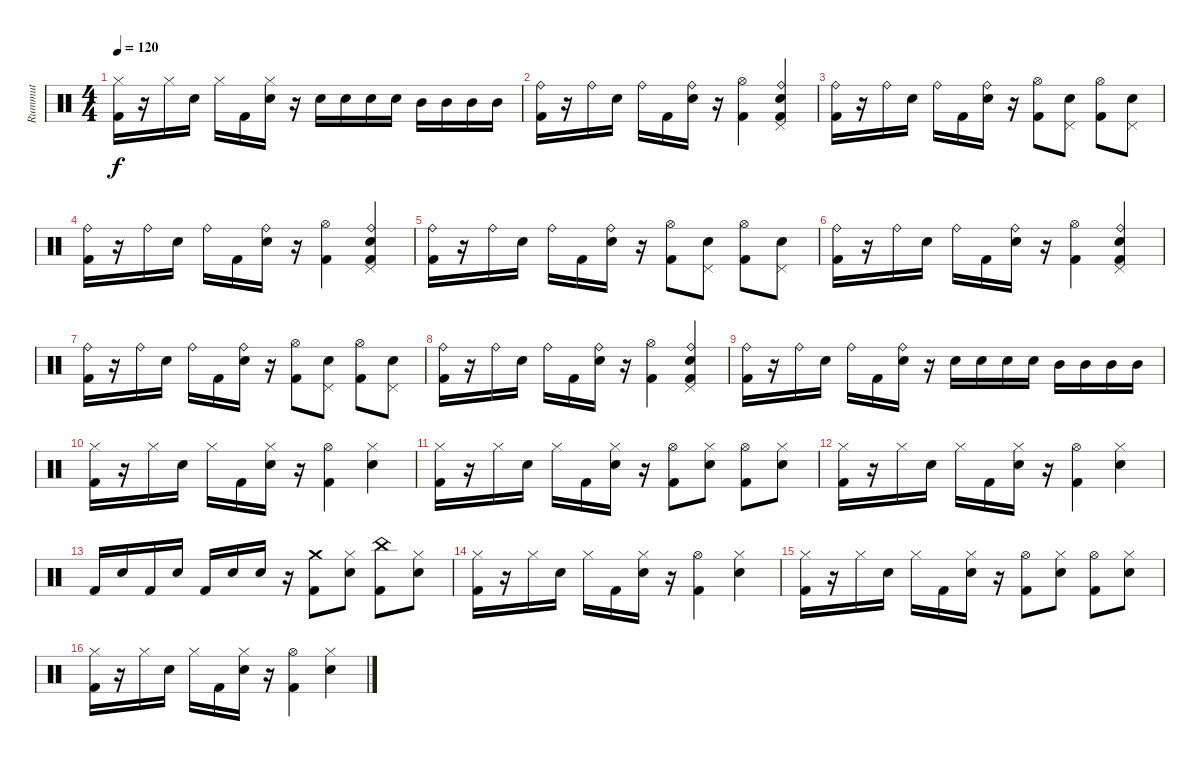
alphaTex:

\track ("Rummut" "Rummut") {instrument percussion}
\staff {score}
\articulation defaults
\ts (4 4)
\tempo 120
\clef neutral
\ks c
("Hi-Hat (closed)" "Kick (hit) 2").16{dy f} r.16 "Hi-Hat (closed)".16 "Snare (hit) 2".16 "Hi-Hat (closed)".16 "Kick (hit) 2".16 ("Hi-Hat (closed)" "Snare (hit) 2").16 r.16 "Snare (hit) 2".16 "Snare (hit) 2".16 "Snare (hit) 2".16 "Snare (hit) 2".16 "Mid Tom (hit)".16 "Mid Tom (hit)".16 "Mid Tom (hit)".16 "Mid Tom (hit)".16 |
("Ride (bell)" "Kick (hit) 2").16 r.16 "Ride (bell)".16 "Snare (hit) 2".16 "Ride (bell)".16 "Kick (hit) 2".16 ("Ride (bell)" "Snare (hit) 2").16 r.16 ("Hi-Hat (open)" "Kick (hit) 2").4 ("Pedal Hi-Hat (hit)" "Snare (hit) 2" "Ride (bell)" "Kick (hit) 2").4 |
("Ride (bell)" "Kick (hit) 2").16 r.16 "Ride (bell)".16 "Snare (hit) 2".16 "Ride (bell)".16 "Kick (hit) 2".16 ("Ride (bell)" "Snare (hit) 2").16 r.16 ("Hi-Hat (open)" "Kick (hit) 2").8 ("Pedal Hi-Hat (hit)" "Snare (hit) 2").8 ("Hi-Hat (open)" "Kick (hit) 2").8 ("Pedal Hi-Hat (hit)" "Snare (hit) 2").8 |
("Ride (bell)" "Kick (hit) 2").16 r.16 "Ride (bell)".16 "Snare (hit) 2".16 "Ride (bell)".16 "Kick (hit) 2".16 ("Ride (bell)" "Snare (hit) 2").16 r.16 ("Hi-Hat (open)" "Kick (hit) 2").4 ("Pedal Hi-Hat (hit)" "Snare (hit) 2" "Ride (bell)" "Kick (hit) 2").4 |
("Ride (bell)" "Kick (hit) 2").16 r.16 "Ride (bell)".16 "Snare (hit) 2".16 "Ride (bell)".16 "Kick (hit) 2".16 ("Ride (bell)" "Snare (hit) 2").16 r.16 ("Hi-Hat (open)" "Kick (hit) 2").8 ("Pedal Hi-Hat (hit)" "Snare (hit) 2").8 ("Hi-Hat (open)" "Kick (hit) 2").8 ("Pedal Hi-Hat (hit)" "Snare (hit) 2").8 |
("Ride (bell)" "Kick (hit) 2").16 r.16 "Ride (bell)".16 "Snare (hit) 2".16 "Ride (bell)".16 "Kick (hit) 2".16 ("Ride (bell)" "Snare (hit) 2").16 r.16 ("Hi-Hat (open)" "Kick (hit) 2").4 ("Pedal Hi-Hat (hit)" "Snare (hit) 2" "Ride (bell)" "Kick (hit) 2").4 |
("Ride (bell)" "Kick (hit) 2").16 r.16 "Ride (bell)".16 "Snare (hit) 2".16 "Ride (bell)".16 "Kick (hit) 2".16 ("Ride (bell)" "Snare (hit) 2").16 r.16 ("Hi-Hat (open)" "Kick (hit) 2").8 ("Pedal Hi-Hat (hit)" "Snare (hit) 2").8 ("Hi-Hat (open)" "Kick (hit) 2").8 ("Pedal Hi-Hat (hit)" "Snare (hit) 2").8 |
("Ride (bell)" "Kick (hit) 2").16 r.16 "Ride (bell)".16 "Snare (hit) 2".16 "Ride (bell)".16 "Kick (hit) 2".16 ("Ride (bell)" "Snare (hit) 2").16 r.16 ("Hi-Hat (open)" "Kick (hit) 2").4 ("Pedal Hi-Hat (hit)" "Snare (hit) 2" "Ride (bell)" "Kick (hit) 2").4 |
("Ride (bell)" "Kick (hit) 2").16 r.16 "Ride (bell)".16 "Snare (hit) 2".16 "Ride (bell)".16 "Kick (hit) 2".16 ("Ride (bell)" "Snare (hit) 2").16 r.16 "Snare (hit) 2".16 "Snare (hit) 2".16 "Snare (hit) 2".16 "Snare (hit) 2".16 "Mid Tom (hit)".16 "Mid Tom (hit)".16 "Mid Tom (hit)".16 "Mid Tom (hit)".16 |
("Hi-Hat (closed)" "Kick (hit) 2").16 r.16 "Hi-Hat (closed)".16 "Snare (hit) 2".16 "Hi-Hat (closed)".16 "Kick (hit) 2".16 ("Hi-Hat (closed)" "Snare (hit) 2").16 r.16 ("Hi-Hat (open)" "Kick (hit) 2").4 ("Hi-Hat (closed)" "Snare (hit) 2").4 |
("Hi-Hat (closed)" "Kick (hit) 2").16 r.16 "Hi-Hat (closed)".16 "Snare (hit) 2".16 "Hi-Hat (closed)".16 "Kick (hit) 2".16 ("Hi-Hat (closed)" "Snare (hit) 2").16 r.16 ("Hi-Hat (open)" "Kick (hit) 2").8 ("Hi-Hat (closed)" "Snare (hit) 2").8 ("Hi-Hat (open)" "Kick (hit) 2").8 ("Hi-Hat (closed)" "Snare (hit) 2").8 |
("Hi-Hat (closed)" "Kick (hit) 2").16 r.16 "Hi-Hat (closed)".16 "Snare (hit) 2".16 "Hi-Hat (closed)".16 "Kick (hit) 2".16 ("Hi-Hat (closed)" "Snare (hit) 2").16 r.16 ("Hi-Hat (open)" "Kick (hit) 2").4 ("Hi-Hat (closed)" "Snare (hit) 2").4 |
"Kick (hit) 2".16 "Snare (hit) 2".16 "Kick (hit) 2".16 "Snare (hit) 2".16 "Kick (hit) 2".16 "Snare (hit) 2".16 "Snare (hit) 2".16 r.16 ("Crash medium (hit)" "Kick (hit) 2").8 ("Hi-Hat (closed)" "Snare (hit) 2").8 ("China (hit)" "Kick (hit) 2").8 ("Hi-Hat (closed)" "Snare (hit) 2").8 |
("Hi-Hat (closed)" "Kick (hit) 2").16 r.16 "Hi-Hat (closed)".16 "Snare (hit) 2".16 "Hi-Hat (closed)".16 "Kick (hit) 2".16 ("Hi-Hat (closed)" "Snare (hit) 2").16 r.16 ("Hi-Hat (open)" "Kick (hit) 2").4 ("Hi-Hat (closed)" "Snare (hit) 2").4 |
("Hi-Hat (closed)" "Kick (hit) 2").16 r.16 "Hi-Hat (closed)".16 "Snare (hit) 2".16 "Hi-Hat (closed)".16 "Kick (hit) 2".16 ("Hi-Hat (closed)" "Snare (hit) 2").16 r.16 ("Hi-Hat (open)" "Kick (hit) 2").8 ("Hi-Hat (closed)" "Snare (hit) 2").8 ("Hi-Hat (open)" "Kick (hit) 2").8 ("Hi-Hat (closed)" "Snare (hit) 2").8 |
("Hi-Hat (closed)" "Kick (hit) 2").16 r.16 "Hi-Hat (closed)".16 "Snare (hit) 2".16 "Hi-Hat (closed)".16 "Kick (hit) 2".16 ("Hi-Hat (closed)" "Snare (hit) 2").16 r.16 ("Hi-Hat (open)" "Kick (hit) 2").4 ("Hi-Hat (closed)" "Snare (hit) 2").4
